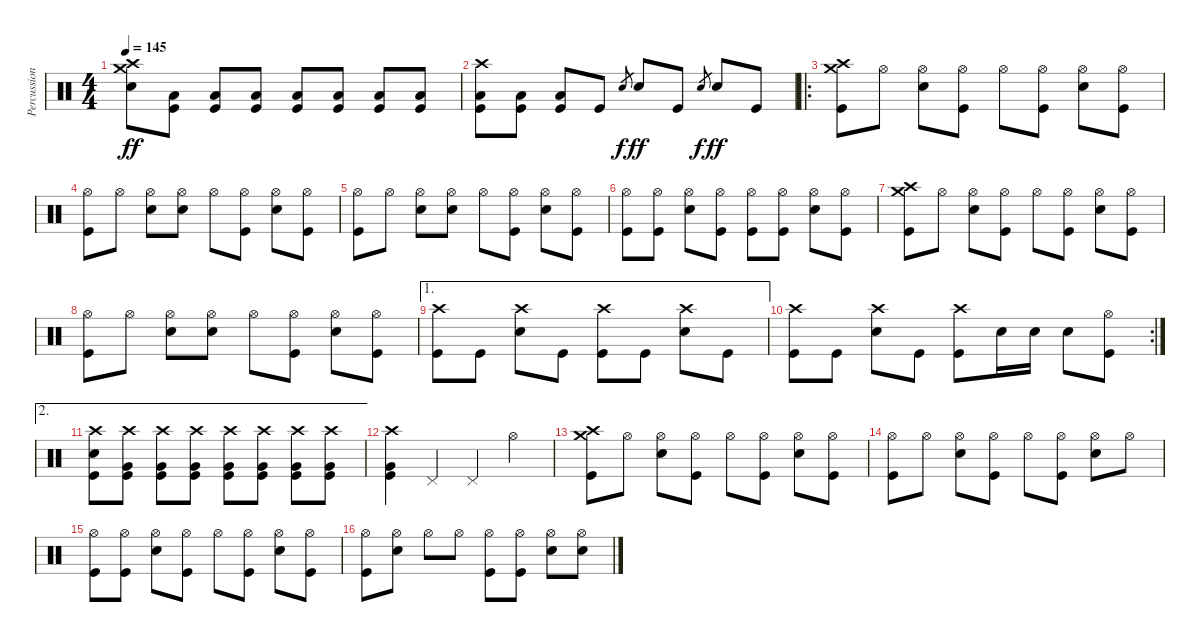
\track ("Percussion" "Percussion") {instrument percussion}
\staff {score}
\articulation defaults
\ts (4 4)
\tempo 145
\clef neutral
\ks c
("Crash medium (hit)" "Crash high (hit)" "Electric Snare (hit)").8{dy ff} ("Low Tom (hit)" "Kick (hit)").8 ("Low Tom (hit)" "Kick (hit)").8 ("Low Tom (hit)" "Kick (hit)").8 ("Low Tom (hit)" "Kick (hit)").8 ("Low Tom (hit)" "Kick (hit)").8 ("Low Tom (hit)" "Kick (hit)").8 ("Low Tom (hit)" "Kick (hit)").8 |
("Crash high (hit)" "Low Tom (hit)" "Kick (hit)").8 ("Low Tom (hit)" "Kick (hit)").8 ("Low Tom (hit)" "Kick (hit)").8 "Kick (hit)".8 "Electric Snare (hit)".8{gr dy f} "Electric Snare (hit)".8{dy ff} "Kick (hit)".8 "Electric Snare (hit)".8{gr dy f} "Electric Snare (hit)".8{dy ff} "Kick (hit)".8 |
\ro
("Crash medium (hit)" "Crash high (hit)" "Kick (hit)").8 "Hi-Hat (open)".8 ("Hi-Hat (open)" "Electric Snare (hit)").8 ("Hi-Hat (open)" "Kick (hit)").8 "Hi-Hat (open)".8 ("Hi-Hat (open)" "Kick (hit)").8 ("Hi-Hat (open)" "Electric Snare (hit)").8 ("Hi-Hat (open)" "Kick (hit)").8 |
("Hi-Hat (open)" "Kick (hit)").8 "Hi-Hat (open)".8 ("Hi-Hat (open)" "Electric Snare (hit)").8 ("Hi-Hat (open)" "Electric Snare (hit)").8 "Hi-Hat (open)".8 ("Hi-Hat (open)" "Kick (hit)").8 ("Hi-Hat (open)" "Electric Snare (hit)").8 ("Hi-Hat (open)" "Kick (hit)").8 |
("Hi-Hat (open)" "Kick (hit)").8 "Hi-Hat (open)".8 ("Hi-Hat (open)" "Electric Snare (hit)").8 ("Hi-Hat (open)" "Electric Snare (hit)").8 "Hi-Hat (open)".8 ("Hi-Hat (open)" "Kick (hit)").8 ("Hi-Hat (open)" "Electric Snare (hit)").8 ("Hi-Hat (open)" "Kick (hit)").8 |
("Hi-Hat (open)" "Kick (hit)").8 ("Hi-Hat (open)" "Kick (hit)").8 ("Hi-Hat (open)" "Electric Snare (hit)").8 ("Hi-Hat (open)" "Kick (hit)").8 ("Hi-Hat (open)" "Kick (hit)").8 ("Hi-Hat (open)" "Kick (hit)").8 ("Hi-Hat (open)" "Electric Snare (hit)").8 ("Hi-Hat (open)" "Kick (hit)").8 |
("Crash medium (hit)" "Crash high (hit)" "Kick (hit)").8 "Hi-Hat (open)".8 ("Hi-Hat (open)" "Electric Snare (hit)").8 ("Hi-Hat (open)" "Kick (hit)").8 "Hi-Hat (open)".8 ("Hi-Hat (open)" "Kick (hit)").8 ("Hi-Hat (open)" "Electric Snare (hit)").8 ("Hi-Hat (open)" "Kick (hit)").8 |
("Hi-Hat (open)" "Kick (hit)").8 "Hi-Hat (open)".8 ("Hi-Hat (open)" "Electric Snare (hit)").8 ("Hi-Hat (open)" "Electric Snare (hit)").8 "Hi-Hat (open)".8 ("Hi-Hat (open)" "Kick (hit)").8 ("Hi-Hat (open)" "Electric Snare (hit)").8 ("Hi-Hat (open)" "Kick (hit)").8 |
\ae 1
("Crash high (hit)" "Kick (hit)").8 "Kick (hit)".8 ("Crash high (hit)" "Electric Snare (hit)").8 "Kick (hit)".8 ("Crash high (hit)" "Kick (hit)").8 "Kick (hit)".8 ("Crash high (hit)" "Electric Snare (hit)").8 "Kick (hit)".8 |
\rc 2
("Crash high (hit)" "Kick (hit)").8 "Kick (hit)".8 ("Crash high (hit)" "Electric Snare (hit)").8 "Kick (hit)".8 ("Crash high (hit)" "Kick (hit)").8 "Electric Snare (hit)".16 "Electric Snare (hit)".16 "Electric Snare (hit)".8 ("Hi-Hat (open)" "Kick (hit)").8 |
\ae 2
("Crash high (hit)" "Electric Snare (hit)" "Kick (hit)").8 ("Crash high (hit)" "Very Low Tom (hit)" "Kick (hit)").8 ("Crash high (hit)" "Very Low Tom (hit)" "Kick (hit)").8 ("Crash high (hit)" "Very Low Tom (hit)" "Kick (hit)").8 ("Crash high (hit)" "Very Low Tom (hit)" "Kick (hit)").8 ("Crash high (hit)" "Very Low Tom (hit)" "Kick (hit)").8 ("Crash high (hit)" "Very Low Tom (hit)" "Kick (hit)").8 ("Crash high (hit)" "Very Low Tom (hit)" "Kick (hit)").8 |
("Crash high (hit)" "Very Low Tom (hit)" "Kick (hit)").4 "Pedal Hi-Hat (hit)".4 "Pedal Hi-Hat (hit)".4 "Hi-Hat (open)".4 |
("Crash high (hit)" "Crash medium (hit)" "Kick (hit)").8 "Hi-Hat (open)".8 ("Hi-Hat (open)" "Electric Snare (hit)").8 ("Hi-Hat (open)" "Kick (hit)").8 "Hi-Hat (open)".8 ("Hi-Hat (open)" "Kick (hit)").8 ("Hi-Hat (open)" "Electric Snare (hit)").8 ("Hi-Hat (open)" "Kick (hit)").8 |
("Hi-Hat (open)" "Kick (hit)").8 "Hi-Hat (open)".8 ("Hi-Hat (open)" "Electric Snare (hit)").8 ("Hi-Hat (open)" "Kick (hit)").8 "Hi-Hat (open)".8 ("Hi-Hat (open)" "Kick (hit)").8 ("Hi-Hat (open)" "Electric Snare (hit)").8 "Hi-Hat (open)".8 |
("Hi-Hat (open)" "Kick (hit)").8 ("Hi-Hat (open)" "Kick (hit)").8 ("Hi-Hat (open)" "Electric Snare (hit)").8 ("Hi-Hat (open)" "Kick (hit)").8 "Hi-Hat (open)".8 ("Hi-Hat (open)" "Kick (hit)").8 ("Hi-Hat (open)" "Electric Snare (hit)").8 ("Hi-Hat (open)" "Kick (hit)").8 |
("Hi-Hat (open)" "Kick (hit)").8 ("Hi-Hat (open)" "Electric Snare (hit)").8 "Hi-Hat (open)".8 "Hi-Hat (open)".8 ("Hi-Hat (open)" "Kick (hit)").8 ("Hi-Hat (open)" "Kick (hit)").8 ("Hi-Hat (open)" "Electric Snare (hit)").8 ("Hi-Hat (open)" "Electric Snare (hit)").8
